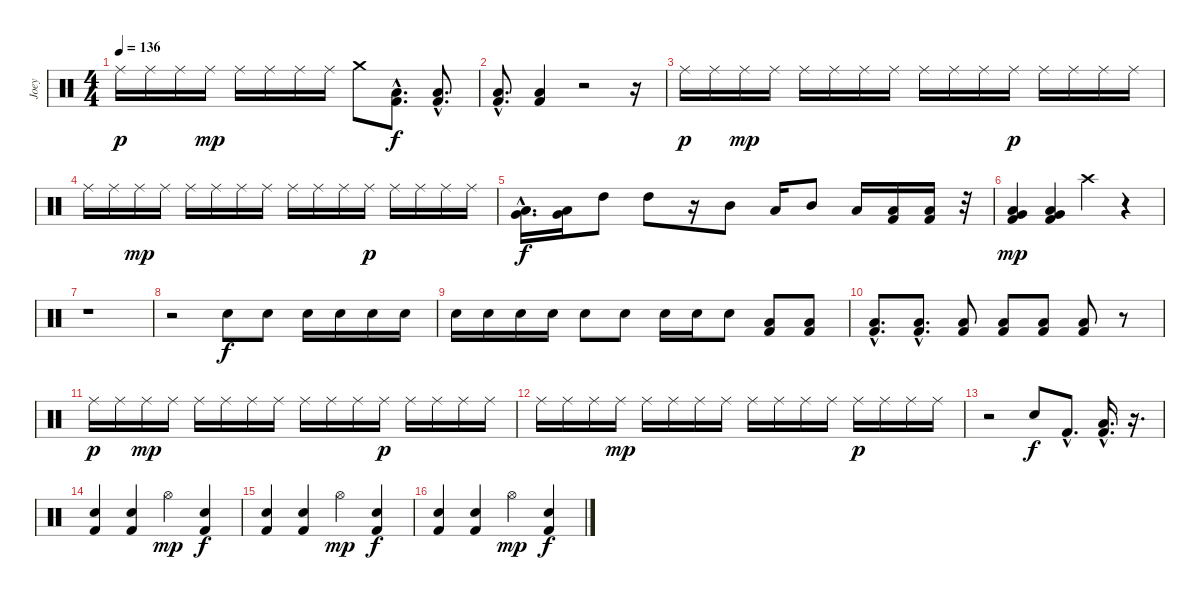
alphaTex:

\track ("Joey" "Joey") {instrument percussion}
\staff {score}
\articulation defaults
\ts (4 4)
\tempo 136
\clef neutral
\ks c "Ride (middle)".16{dy p} "Ride (middle)".16 "Ride (middle)".16 "Ride (middle)".16{dy mp} "Ride (middle)".16 "Ride (middle)".16 "Ride (middle)".16 "Ride (middle)".16 "Crash medium (hit)".8
("Low Floor Tom (hit)"{hac} "Kick (hit) 2"{hac}).8{d dy f balance 0} ("Low Floor Tom (hit)"{hac} "Kick (hit) 2"{hac}).8{d} |
("Low Floor Tom (hit)"{hac} "Kick (hit) 2"{hac}).8{d} ("Low Floor Tom (hit)" "Kick (hit) 2").4 r.2 r.16{balance 8} |
"Ride (middle)".16{dy p} "Ride (middle)".16 "Ride (middle)".16{dy mp} "Ride (middle)".16 "Ride (middle)".16 "Ride (middle)".16 "Ride (middle)".16 "Ride (middle)".16 "Ride (middle)".16 "Ride (middle)".16 "Ride (middle)".16 "Ride (middle)".16{dy p} "Ride (middle)".16 "Ride (middle)".16 "Ride (middle)".16 "Ride (middle)".16 |
"Ride (middle)".16 "Ride (middle)".16 "Ride (middle)".16{dy mp} "Ride (middle)".16 "Ride (middle)".16 "Ride (middle)".16 "Ride (middle)".16 "Ride (middle)".16 "Ride (middle)".16 "Ride (middle)".16 "Ride (middle)".16 "Ride (middle)".16{dy p} "Ride (middle)".16 "Ride (middle)".16 "Ride (middle)".16 "Ride (middle)".16 |
("Low Tom (hit)"{hac} "Very Low Tom (hit)"{hac}).16{d dy f volume 11 balance 16} ("Low Tom (hit)" "Very Low Tom (hit)").16 "High Tom (hit)".8 "High Tom (hit)".8 r.16 "Mid Tom (hit)".8 "Low Tom (hit)".16 "Mid Tom (hit)".8 "Low Tom (hit)".16 ("Low Floor Tom (hit)" "Kick (hit) 2").16 ("Low Floor Tom (hit)" "Kick (hit) 2").16 r.32 |
("Low Tom (hit)" "Very Low Tom (hit)" "Kick (hit) 2").4{dy mp} ("Low Tom (hit)" "Very Low Tom (hit)" "Kick (hit) 2").4 "Crash high (hit)".4 r.4 |
r.1{balance 8} |
r.2 "Electric Snare (hit)".8{dy f} "Electric Snare (hit)".8 "Electric Snare (hit)".16 "Electric Snare (hit)".16 "Electric Snare (hit)".16 "Electric Snare (hit)".16 |
"Electric Snare (hit)".16 "Electric Snare (hit)".16 "Electric Snare (hit)".16 "Electric Snare (hit)".16 "Electric Snare (hit)".8 "Electric Snare (hit)".8 "Electric Snare (hit)".16 "Electric Snare (hit)".16 "Electric Snare (hit)".8 ("Low Floor Tom (hit)" "Kick (hit) 2").8 ("Low Floor Tom (hit)" "Kick (hit) 2").8 |
("Low Floor Tom (hit)"{hac} "Kick (hit) 2"{hac}).8{d balance 10} ("Low Floor Tom (hit)"{hac} "Kick (hit) 2"{hac}).8{d} ("Low Floor Tom (hit)" "Kick (hit) 2").8{balance 12} ("Low Floor Tom (hit)" "Kick (hit) 2").8 ("Low Floor Tom (hit)" "Kick (hit) 2").8{balance 16} ("Low Floor Tom (hit)" "Kick (hit) 2").8 r.8{balance 8} |
"Ride (middle)".16{dy p} "Ride (middle)".16 "Ride (middle)".16{dy mp} "Ride (middle)".16 "Ride (middle)".16 "Ride (middle)".16 "Ride (middle)".16 "Ride (middle)".16 "Ride (middle)".16 "Ride (middle)".16 "Ride (middle)".16 "Ride (middle)".16{dy p} "Ride (middle)".16 "Ride (middle)".16 "Ride (middle)".16 "Ride (middle)".16 |
"Ride (middle)".16 "Ride (middle)".16 "Ride (middle)".16 "Ride (middle)".16{dy mp} "Ride (middle)".16 "Ride (middle)".16 "Ride (middle)".16 "Ride (middle)".16 "Ride (middle)".16 "Ride (middle)".16 "Ride (middle)".16 "Ride (middle)".16 "Ride (middle)".16{dy p} "Ride (middle)".16 "Ride (middle)".16 "Ride (middle)".16 |
r.2 "Electric Snare (hit)".8{dy f} "Kick (hit) 2"{hac}.8{d balance 16} ("Low Floor Tom (hit)"{hac} "Kick (hit) 2"{hac}).16{d} r.16{d} |
("Electric Snare (hit)" "Kick (hit) 2").4{volume 15 balance 8} ("Electric Snare (hit)" "Kick (hit) 2").4 "Hi-Hat (open)".4{dy mp} ("Electric Snare (hit)" "Kick (hit) 2").4{dy f} |
("Electric Snare (hit)" "Kick (hit) 2").4 ("Electric Snare (hit)" "Kick (hit) 2").4 "Hi-Hat (open)".4{dy mp} ("Electric Snare (hit)" "Kick (hit) 2").4{dy f} |
("Electric Snare (hit)" "Kick (hit) 2").4 ("Electric Snare (hit)" "Kick (hit) 2").4 "Hi-Hat (open)".4{dy mp} ("Electric Snare (hit)" "Kick (hit) 2").4{dy f}
